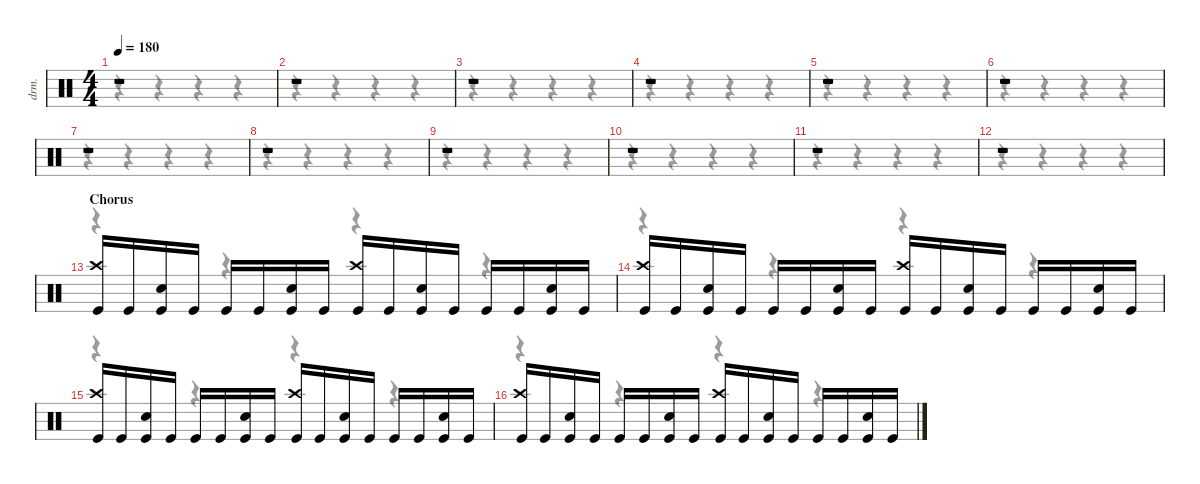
\defaultSystemsLayout 4
\hideDynamics
\bracketExtendMode nobrackets
\track ("Drums" "drm.") {instrument percussion}
\staff {score}
\articulation defaults
\voice
\ts (4 4)
\tempo 180
\clef neutral
\ks c
r.1{dy f} |
r.1 |
r.1 |
r.1 |
r.1 |
r.1 |
r.1 |
r.1 |
r.1 |
r.1 |
r.1 |
r.1 |
\section ("" "Chorus")
("Crash high (hit)" "Kick (hit)").16 "Kick (hit)".16 ("Snare (hit) 2" "Kick (hit)").16 "Kick (hit)".16 "Kick (hit)".16 "Kick (hit)".16 ("Snare (hit) 2" "Kick (hit)").16 "Kick (hit)".16 ("Crash high (hit)" "Kick (hit)").16 "Kick (hit)".16 ("Snare (hit) 2" "Kick (hit)").16 "Kick (hit)".16 "Kick (hit)".16 "Kick (hit)".16 ("Snare (hit) 2" "Kick (hit)").16 "Kick (hit)".16 |
("Crash high (hit)" "Kick (hit)").16 "Kick (hit)".16 ("Snare (hit) 2" "Kick (hit)").16 "Kick (hit)".16 "Kick (hit)".16 "Kick (hit)".16 ("Snare (hit) 2" "Kick (hit)").16 "Kick (hit)".16 ("Crash high (hit)" "Kick (hit)").16 "Kick (hit)".16 ("Snare (hit) 2" "Kick (hit)").16 "Kick (hit)".16 "Kick (hit)".16 "Kick (hit)".16 ("Snare (hit) 2" "Kick (hit)").16 "Kick (hit)".16 |
("Crash high (hit)" "Kick (hit)").16 "Kick (hit)".16 ("Snare (hit) 2" "Kick (hit)").16 "Kick (hit)".16 "Kick (hit)".16 "Kick (hit)".16 ("Snare (hit) 2" "Kick (hit)").16 "Kick (hit)".16 ("Crash high (hit)" "Kick (hit)").16 "Kick (hit)".16 ("Snare (hit) 2" "Kick (hit)").16 "Kick (hit)".16 "Kick (hit)".16 "Kick (hit)".16 ("Snare (hit) 2" "Kick (hit)").16 "Kick (hit)".16 |
("Crash high (hit)" "Kick (hit)").16 "Kick (hit)".16 ("Snare (hit) 2" "Kick (hit)").16 "Kick (hit)".16 "Kick (hit)".16 "Kick (hit)".16 ("Snare (hit) 2" "Kick (hit)").16 "Kick (hit)".16 ("Crash high (hit)" "Kick (hit)").16 "Kick (hit)".16 ("Snare (hit) 2" "Kick (hit)").16 "Kick (hit)".16 "Kick (hit)".16 "Kick (hit)".16 ("Snare (hit) 2" "Kick (hit)").16 "Kick (hit)".16
\voice
\clef neutral
\ottava regular
\simile none
\ks c
r.4{dy mf} r.4 r.4 r.4 |
r.4 r.4 r.4 r.4 |
r.4 r.4 r.4 r.4 |
r.4 r.4 r.4 r.4 |
r.4 r.4 r.4 r.4 |
r.4 r.4 r.4 r.4 |
r.4 r.4 r.4 r.4 |
r.4 r.4 r.4 r.4 |
r.4 r.4 r.4 r.4 |
r.4 r.4 r.4 r.4 |
r.4 r.4 r.4 r.4 |
r.4 r.4 r.4 r.4 |
r.4 r.4 r.4 r.4 |
r.4 r.4 r.4 r.4 |
r.4 r.4 r.4 r.4 |
r.4 r.4 r.4 r.4
